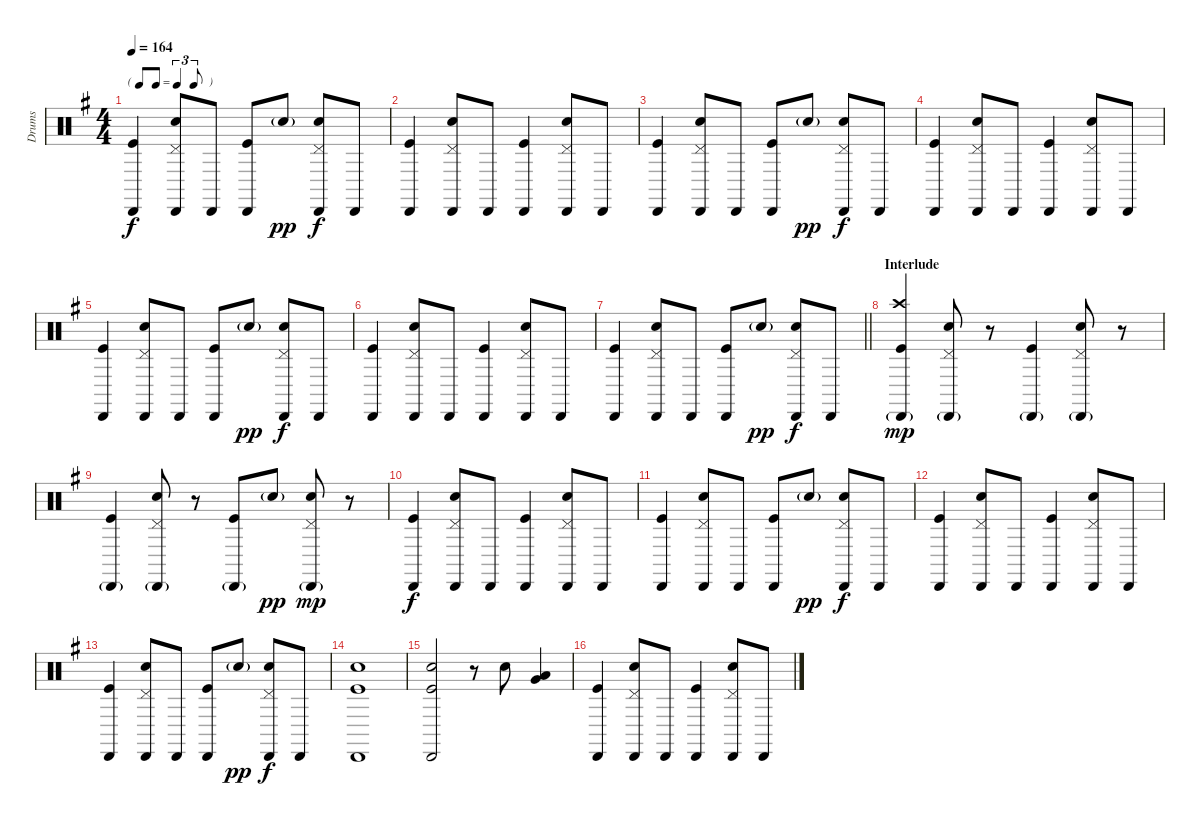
\track ("Drums" "Drums") {instrument percussion}
\staff {score}
\articulation defaults
\ts (4 4)
\tf triplet8th
\tempo 164
\clef neutral
\ks g
("Cabasa (hit)" "Kick (hit)").4{dy f} ("Pedal Hi-Hat (hit)" "Cabasa (hit)" "Snare (hit) 2").8 "Cabasa (hit)".8 ("Cabasa (hit)" "Kick (hit)").8 "Snare (hit) 2"{g}.8{dy pp} ("Pedal Hi-Hat (hit)" "Cabasa (hit)" "Snare (hit) 2").8{dy f} "Cabasa (hit)".8 |
("Cabasa (hit)" "Kick (hit)").4 ("Pedal Hi-Hat (hit)" "Cabasa (hit)" "Snare (hit) 2").8 "Cabasa (hit)".8 ("Cabasa (hit)" "Kick (hit)").4 ("Pedal Hi-Hat (hit)" "Cabasa (hit)" "Snare (hit) 2").8 "Cabasa (hit)".8 |
("Cabasa (hit)" "Kick (hit)").4 ("Pedal Hi-Hat (hit)" "Cabasa (hit)" "Snare (hit) 2").8 "Cabasa (hit)".8 ("Cabasa (hit)" "Kick (hit)").8 "Snare (hit) 2"{g}.8{dy pp} ("Pedal Hi-Hat (hit)" "Cabasa (hit)" "Snare (hit) 2").8{dy f} "Cabasa (hit)".8 |
("Cabasa (hit)" "Kick (hit)").4 ("Pedal Hi-Hat (hit)" "Cabasa (hit)" "Snare (hit) 2").8 "Cabasa (hit)".8 ("Cabasa (hit)" "Kick (hit)").4 ("Pedal Hi-Hat (hit)" "Cabasa (hit)" "Snare (hit) 2").8 "Cabasa (hit)".8 |
("Cabasa (hit)" "Kick (hit)").4 ("Pedal Hi-Hat (hit)" "Cabasa (hit)" "Snare (hit) 2").8 "Cabasa (hit)".8 ("Cabasa (hit)" "Kick (hit)").8 "Snare (hit) 2"{g}.8{dy pp} ("Pedal Hi-Hat (hit)" "Cabasa (hit)" "Snare (hit) 2").8{dy f} "Cabasa (hit)".8 |
("Cabasa (hit)" "Kick (hit)").4 ("Pedal Hi-Hat (hit)" "Cabasa (hit)" "Snare (hit) 2").8 "Cabasa (hit)".8 ("Cabasa (hit)" "Kick (hit)").4 ("Pedal Hi-Hat (hit)" "Cabasa (hit)" "Snare (hit) 2").8 "Cabasa (hit)".8 |
\barLineRight lightlight
("Cabasa (hit)" "Kick (hit)").4 ("Pedal Hi-Hat (hit)" "Cabasa (hit)" "Snare (hit) 2").8 "Cabasa (hit)".8 ("Cabasa (hit)" "Kick (hit)").8 "Snare (hit) 2"{g}.8{dy pp} ("Pedal Hi-Hat (hit)" "Cabasa (hit)" "Snare (hit) 2").8{dy f} "Cabasa (hit)".8 |
\section ("" "Interlude")
("Crash high (hit)" "Cabasa (hit)"{g} "Kick (hit)").4{dy mp} ("Pedal Hi-Hat (hit)" "Cabasa (hit)"{g} "Snare (hit) 2").8 r.8 ("Cabasa (hit)"{g} "Kick (hit)").4 ("Pedal Hi-Hat (hit)" "Cabasa (hit)"{g} "Snare (hit) 2").8 r.8 |
("Cabasa (hit)"{g} "Kick (hit)").4 ("Pedal Hi-Hat (hit)" "Cabasa (hit)"{g} "Snare (hit) 2").8 r.8 ("Cabasa (hit)"{g} "Kick (hit)").8 "Snare (hit) 2"{g}.8{dy pp} ("Pedal Hi-Hat (hit)" "Cabasa (hit)"{g} "Snare (hit) 2").8{dy mp} r.8 |
("Cabasa (hit)" "Kick (hit)").4{dy f} ("Pedal Hi-Hat (hit)" "Cabasa (hit)" "Snare (hit) 2").8 "Cabasa (hit)".8 ("Cabasa (hit)" "Kick (hit)").4 ("Pedal Hi-Hat (hit)" "Cabasa (hit)" "Snare (hit) 2").8 "Cabasa (hit)".8 |
("Cabasa (hit)" "Kick (hit)").4 ("Pedal Hi-Hat (hit)" "Cabasa (hit)" "Snare (hit) 2").8 "Cabasa (hit)".8 ("Cabasa (hit)" "Kick (hit)").8 "Snare (hit) 2"{g}.8{dy pp} ("Pedal Hi-Hat (hit)" "Cabasa (hit)" "Snare (hit) 2").8{dy f} "Cabasa (hit)".8 |
("Cabasa (hit)" "Kick (hit)").4 ("Pedal Hi-Hat (hit)" "Cabasa (hit)" "Snare (hit) 2").8 "Cabasa (hit)".8 ("Cabasa (hit)" "Kick (hit)").4 ("Pedal Hi-Hat (hit)" "Cabasa (hit)" "Snare (hit) 2").8 "Cabasa (hit)".8 |
("Cabasa (hit)" "Kick (hit)").4 ("Pedal Hi-Hat (hit)" "Cabasa (hit)" "Snare (hit) 2").8 "Cabasa (hit)".8 ("Cabasa (hit)" "Kick (hit)").8 "Snare (hit) 2"{g}.8{dy pp} ("Pedal Hi-Hat (hit)" "Cabasa (hit)" "Snare (hit) 2").8{dy f} "Cabasa (hit)".8 |
("Cabasa (hit)" "Snare (hit) 2" "Kick (hit)").1 |
("Cabasa (hit)" "Snare (hit) 2" "Kick (hit)").2 r.8 "Snare (hit) 2".8 ("Very Low Tom (hit)" "Low Floor Tom (hit)").4 |
("Cabasa (hit)" "Kick (hit)").4 ("Pedal Hi-Hat (hit)" "Cabasa (hit)" "Snare (hit) 2").8 "Cabasa (hit)".8 ("Cabasa (hit)" "Kick (hit)").4 ("Pedal Hi-Hat (hit)" "Cabasa (hit)" "Snare (hit) 2").8 "Cabasa (hit)".8
